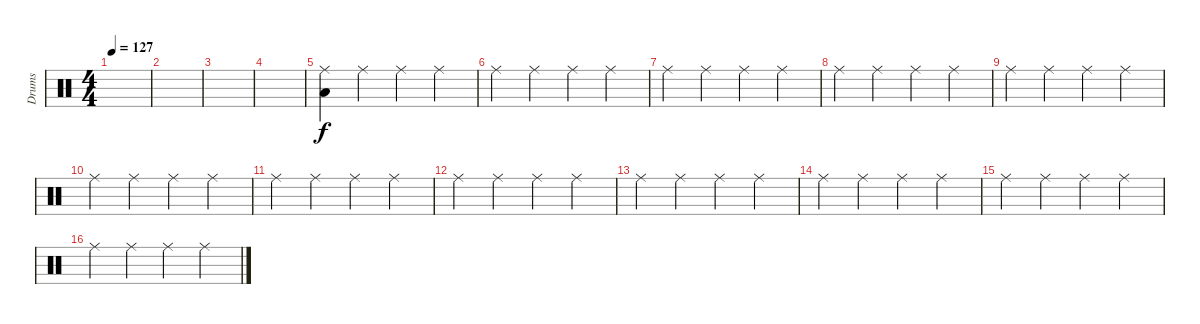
\track ("Drums" "Drums") {instrument percussion}
\staff {score}
\articulation defaults
\ts (4 4)
\tempo 127
\clef neutral
\ks c
|
|
|
|
("Ride (middle)" "Low Tom (hit)").4 "Ride (middle)".4 "Ride (middle)".4 "Ride (middle)".4 |
"Ride (middle)".4 "Ride (middle)".4 "Ride (middle)".4 "Ride (middle)".4 |
"Ride (middle)".4 "Ride (middle)".4 "Ride (middle)".4 "Ride (middle)".4 |
"Ride (middle)".4 "Ride (middle)".4 "Ride (middle)".4 "Ride (middle)".4 |
"Ride (middle)".4 "Ride (middle)".4 "Ride (middle)".4 "Ride (middle)".4 |
"Ride (middle)".4 "Ride (middle)".4 "Ride (middle)".4 "Ride (middle)".4 |
"Ride (middle)".4 "Ride (middle)".4 "Ride (middle)".4 "Ride (middle)".4 |
"Ride (middle)".4 "Ride (middle)".4 "Ride (middle)".4 "Ride (middle)".4 |
"Ride (middle)".4 "Ride (middle)".4 "Ride (middle)".4 "Ride (middle)".4 |
"Ride (middle)".4 "Ride (middle)".4 "Ride (middle)".4 "Ride (middle)".4 |
"Ride (middle)".4 "Ride (middle)".4 "Ride (middle)".4 "Ride (middle)".4 |
"Ride (middle)".4 "Ride (middle)".4 "Ride (middle)".4 "Ride (middle)".4
